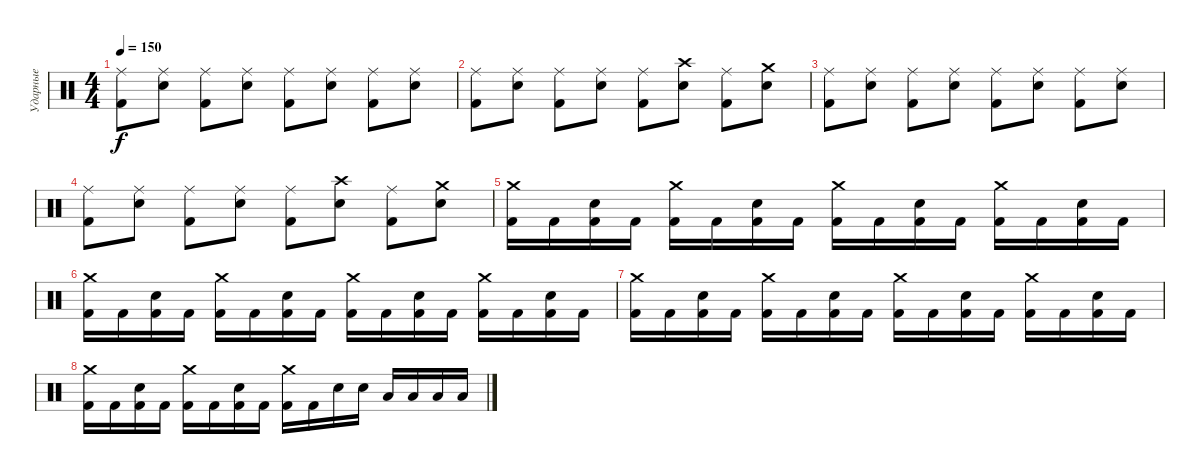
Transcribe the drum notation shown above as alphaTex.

\track ("Ударные" "Ударные") {instrument percussion}
\staff {score}
\articulation defaults
\ts (4 4)
\tempo 150
\clef neutral
\ks c
("Ride (middle)" "Kick (hit) 2").8{dy f} ("Ride (middle)" "Electric Snare (hit)").8 ("Ride (middle)" "Kick (hit) 2").8 ("Ride (middle)" "Electric Snare (hit)").8 ("Ride (middle)" "Kick (hit) 2").8 ("Ride (middle)" "Electric Snare (hit)").8 ("Ride (middle)" "Kick (hit) 2").8 ("Ride (middle)" "Electric Snare (hit)").8 |
("Ride (middle)" "Kick (hit) 2").8 ("Ride (middle)" "Electric Snare (hit)").8 ("Ride (middle)" "Kick (hit) 2").8 ("Ride (middle)" "Electric Snare (hit)").8 ("Ride (middle)" "Kick (hit) 2").8 ("Crash high (hit)" "Electric Snare (hit)").8 ("Ride (middle)" "Kick (hit) 2").8 ("Crash medium (hit)" "Electric Snare (hit)").8 |
("Ride (middle)" "Kick (hit) 2").8 ("Ride (middle)" "Electric Snare (hit)").8 ("Ride (middle)" "Kick (hit) 2").8 ("Ride (middle)" "Electric Snare (hit)").8 ("Ride (middle)" "Kick (hit) 2").8 ("Ride (middle)" "Electric Snare (hit)").8 ("Ride (middle)" "Kick (hit) 2").8 ("Ride (middle)" "Electric Snare (hit)").8 |
("Ride (middle)" "Kick (hit) 2").8 ("Ride (middle)" "Electric Snare (hit)").8 ("Ride (middle)" "Kick (hit) 2").8 ("Ride (middle)" "Electric Snare (hit)").8 ("Ride (middle)" "Kick (hit) 2").8 ("Crash high (hit)" "Electric Snare (hit)").8 ("Ride (middle)" "Kick (hit) 2").8 ("Crash medium (hit)" "Electric Snare (hit)").8 |
("Crash medium (hit)" "Kick (hit) 2").16 "Kick (hit) 2".16 ("Electric Snare (hit)" "Kick (hit) 2").16 "Kick (hit) 2".16 ("Crash medium (hit)" "Kick (hit) 2").16 "Kick (hit) 2".16 ("Electric Snare (hit)" "Kick (hit) 2").16 "Kick (hit) 2".16 ("Crash medium (hit)" "Kick (hit) 2").16 "Kick (hit) 2".16 ("Electric Snare (hit)" "Kick (hit) 2").16 "Kick (hit) 2".16 ("Crash medium (hit)" "Kick (hit) 2").16 "Kick (hit) 2".16 ("Electric Snare (hit)" "Kick (hit) 2").16 "Kick (hit) 2".16 |
("Crash medium (hit)" "Kick (hit) 2").16 "Kick (hit) 2".16 ("Electric Snare (hit)" "Kick (hit) 2").16 "Kick (hit) 2".16 ("Crash medium (hit)" "Kick (hit) 2").16 "Kick (hit) 2".16 ("Electric Snare (hit)" "Kick (hit) 2").16 "Kick (hit) 2".16 ("Crash medium (hit)" "Kick (hit) 2").16 "Kick (hit) 2".16 ("Electric Snare (hit)" "Kick (hit) 2").16 "Kick (hit) 2".16 ("Crash medium (hit)" "Kick (hit) 2").16 "Kick (hit) 2".16 ("Electric Snare (hit)" "Kick (hit) 2").16 "Kick (hit) 2".16 |
("Crash medium (hit)" "Kick (hit) 2").16 "Kick (hit) 2".16 ("Electric Snare (hit)" "Kick (hit) 2").16 "Kick (hit) 2".16 ("Crash medium (hit)" "Kick (hit) 2").16 "Kick (hit) 2".16 ("Electric Snare (hit)" "Kick (hit) 2").16 "Kick (hit) 2".16 ("Crash medium (hit)" "Kick (hit) 2").16 "Kick (hit) 2".16 ("Electric Snare (hit)" "Kick (hit) 2").16 "Kick (hit) 2".16 ("Crash medium (hit)" "Kick (hit) 2").16 "Kick (hit) 2".16 ("Electric Snare (hit)" "Kick (hit) 2").16 "Kick (hit) 2".16 |
("Crash medium (hit)" "Kick (hit) 2").16 "Kick (hit) 2".16 ("Electric Snare (hit)" "Kick (hit) 2").16 "Kick (hit) 2".16 ("Crash medium (hit)" "Kick (hit) 2").16 "Kick (hit) 2".16 ("Electric Snare (hit)" "Kick (hit) 2").16 "Kick (hit) 2".16 ("Crash medium (hit)" "Kick (hit) 2").16 "Kick (hit) 2".16 "Electric Snare (hit)".16 "Electric Snare (hit)".16 "Low Tom (hit)".16 "Low Tom (hit)".16 "Low Tom (hit)".16 "Low Tom (hit)".16
